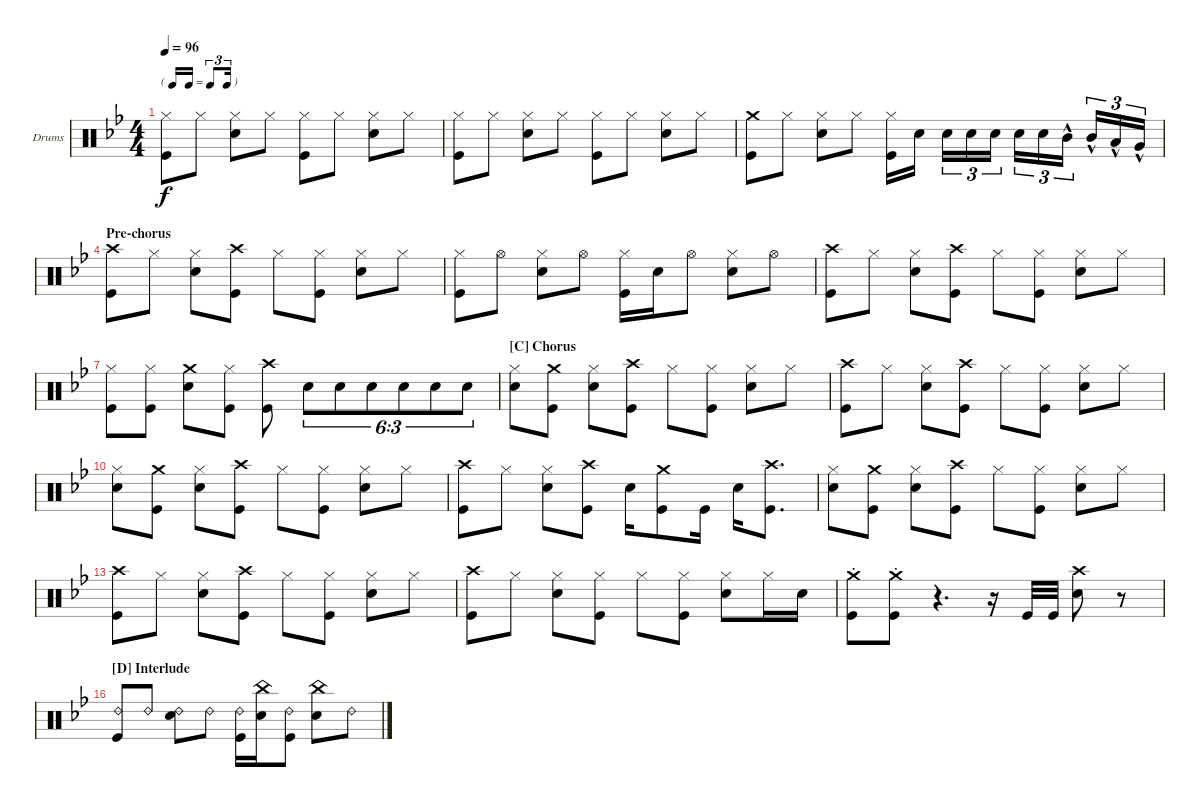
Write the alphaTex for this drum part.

\bracketExtendMode nobrackets
\firstSystemTrackNameOrientation horizontal
\otherSystemsTrackNameOrientation horizontal
\defaultBarNumberDisplay FirstOfSystem
\track ("Randy Castillo" "Drums") {instrument percussion}
\staff {score}
\articulation defaults
\ts (4 4)
\tf triplet16th
\tempo 96
\clef neutral
\ks bb
("Kick (hit)" "Hi-Hat (closed)").8{dy f} "Hi-Hat (closed)".8 ("Hi-Hat (closed)" "Snare (hit) 2").8 "Hi-Hat (closed)".8 ("Hi-Hat (closed)" "Kick (hit)").8 "Hi-Hat (closed)".8 ("Hi-Hat (closed)" "Snare (hit) 2").8 "Hi-Hat (closed)".8 |
\scale
0.498626 ("Kick (hit)" "Hi-Hat (closed)").8 "Hi-Hat (closed)".8 ("Hi-Hat (closed)" "Snare (hit) 2").8 "Hi-Hat (closed)".8 ("Hi-Hat (closed)" "Kick (hit)").8 "Hi-Hat (closed)".8 ("Hi-Hat (closed)" "Snare (hit) 2").8 "Hi-Hat (closed)".8 |
\scale
0.502102 ("Kick (hit)" "Crash medium (hit)").8 "Hi-Hat (closed)".8 ("Hi-Hat (closed)" "Snare (hit) 2").8 "Hi-Hat (closed)".8 ("Hi-Hat (closed)" "Kick (hit)").16 "Snare (hit) 2".16 "Snare (hit) 2".16{tu (3 2)} "Snare (hit) 2".16{tu (3 2)} "Snare (hit) 2".16{tu (3 2)} "Snare (hit) 2".16{tu (3 2)} "Snare (hit) 2".16{tu (3 2)} "Mid Tom (hit)"{hac}.16{tu (3 2)} "Mid Tom (hit)"{hac}.16{tu (3 2)} "Low Tom (hit)"{hac}.16{tu (3 2)} "Very Low Tom (hit)"{hac}.16{tu (3 2)} |
\section ("" "Pre-chorus")
("Kick (hit)" "Crash high (hit)").8 "Hi-Hat (closed)".8 ("Hi-Hat (closed)" "Snare (hit) 2").8 ("Kick (hit)" "Crash high (hit)").8 "Hi-Hat (closed)".8 ("Hi-Hat (closed)" "Kick (hit)").8 ("Hi-Hat (closed)" "Snare (hit) 2").8 "Hi-Hat (closed)".8 |
("Kick (hit)" "Hi-Hat (closed)").8 "Hi-Hat (open)".8 ("Hi-Hat (closed)" "Snare (hit) 2").8 "Hi-Hat (open)".8 ("Hi-Hat (closed)" "Kick (hit)").16 "Snare (hit) 2".16 "Hi-Hat (open)".8 ("Snare (hit) 2" "Hi-Hat (closed)").8 "Hi-Hat (open)".8 |
\scale
0.465642 ("Kick (hit)" "Crash high (hit)").8 "Hi-Hat (closed)".8 ("Hi-Hat (closed)" "Snare (hit) 2").8 ("Kick (hit)" "Crash high (hit)").8 "Hi-Hat (closed)".8 ("Hi-Hat (closed)" "Kick (hit)").8 ("Hi-Hat (closed)" "Snare (hit) 2").8 "Hi-Hat (closed)".8 |
\scale
0.534374 ("Kick (hit)" "Hi-Hat (closed)").8 ("Hi-Hat (closed)" "Kick (hit)").8 ("Snare (hit) 2" "Crash medium (hit)").8 ("Hi-Hat (closed)" "Kick (hit)").8 ("Kick (hit)" "Crash high (hit)").8 "Snare (hit) 2".8{tu (6 3)} "Snare (hit) 2".8{tu (6 3)} "Snare (hit) 2".8{tu (6 3)} "Snare (hit) 2".8{tu (6 3)} "Snare (hit) 2".8{tu (6 3)} "Snare (hit) 2".8{tu (6 3)} |
\section ("C" "Chorus")
\scale
0.466819 ("Snare (hit) 2" "Hi-Hat (closed)").8 ("Kick (hit)" "Crash medium (hit)").8 ("Snare (hit) 2" "Hi-Hat (closed)").8 ("Kick (hit)" "Crash high (hit)").8 "Hi-Hat (closed)".8 ("Kick (hit)" "Hi-Hat (closed)").8 ("Snare (hit) 2" "Hi-Hat (closed)").8 "Hi-Hat (closed)".8 |
\scale
0.53312 ("Kick (hit)" "Crash high (hit)").8 "Hi-Hat (closed)".8 ("Hi-Hat (closed)" "Snare (hit) 2").8 ("Kick (hit)" "Crash high (hit)").8 "Hi-Hat (closed)".8 ("Hi-Hat (closed)" "Kick (hit)").8 ("Hi-Hat (closed)" "Snare (hit) 2").8 "Hi-Hat (closed)".8 |
("Snare (hit) 2" "Hi-Hat (closed)").8 ("Kick (hit)" "Crash medium (hit)").8 ("Snare (hit) 2" "Hi-Hat (closed)").8 ("Kick (hit)" "Crash high (hit)").8 "Hi-Hat (closed)".8 ("Kick (hit)" "Hi-Hat (closed)").8 ("Snare (hit) 2" "Hi-Hat (closed)").8 "Hi-Hat (closed)".8 |
("Kick (hit)" "Crash high (hit)").8 "Hi-Hat (closed)".8 ("Hi-Hat (closed)" "Snare (hit) 2").8 ("Kick (hit)" "Crash high (hit)").8 "Snare (hit) 2".16 ("Kick (hit)" "Crash medium (hit)").8 "Kick (hit)".16 "Snare (hit) 2".16 ("Kick (hit)" "Crash high (hit)").8{d} |
\scale
0.477873 ("Snare (hit) 2" "Hi-Hat (closed)").8 ("Kick (hit)" "Crash medium (hit)").8 ("Snare (hit) 2" "Hi-Hat (closed)").8 ("Kick (hit)" "Crash high (hit)").8 "Hi-Hat (closed)".8 ("Kick (hit)" "Hi-Hat (closed)").8 ("Snare (hit) 2" "Hi-Hat (closed)").8 "Hi-Hat (closed)".8 |
\scale
0.522073 ("Kick (hit)" "Crash high (hit)").8 "Hi-Hat (closed)".8 ("Hi-Hat (closed)" "Snare (hit) 2").8 ("Kick (hit)" "Crash high (hit)").8 "Hi-Hat (closed)".8 ("Hi-Hat (closed)" "Kick (hit)").8 ("Hi-Hat (closed)" "Snare (hit) 2").8 "Hi-Hat (closed)".8 |
\scale
0.485393 ("Kick (hit)" "Crash high (hit)").8 "Hi-Hat (closed)".8 ("Hi-Hat (closed)" "Snare (hit) 2").8 ("Kick (hit)" "Hi-Hat (closed)").8 "Hi-Hat (closed)".8 ("Hi-Hat (closed)" "Kick (hit)").8 ("Hi-Hat (closed)" "Snare (hit) 2").8 "Hi-Hat (closed)".16 "Snare (hit) 2".16 |
\scale
0.514199 ("Kick (hit)" "Crash medium (hit)"{st}).8 ("Kick (hit)"{st} "Crash medium (hit)"{st}).8 r.4{d} r.16 "Kick (hit)".32 "Kick (hit)".32 ("Snare (hit) 2" "Crash high (hit)").8 r.8 |
\section ("D" "Interlude")
\scale
0.48539 ("Kick (hit)" "Ride (bell) 2").8 "Ride (bell) 2".8 ("Snare (hit) 2" "Ride (bell) 2").8 "Ride (bell) 2".8 ("Ride (bell) 2" "Kick (hit)").16 ("Snare (hit) 2" "China (hit)").16 ("Kick (hit)" "Ride (bell) 2").8 ("Snare (hit) 2" "China (hit)").8 "Ride (bell) 2".8
